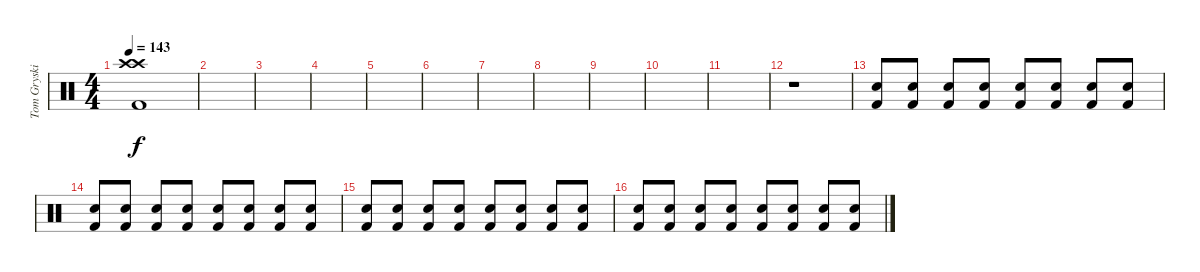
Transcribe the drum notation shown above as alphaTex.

\track ("Tom Gryskiewicz - Drums" "Tom Gryski") {instrument percussion}
\staff {score}
\articulation defaults
\ts (4 4)
\tempo 143
\clef neutral
\ks c
("Crash high (hit)" "Crash high (hit)" "Kick (hit) 2").1{dy f} |
|
|
|
|
|
|
|
|
|
|
r.1{volume 4} |
("Electric Snare (hit)" "Kick (hit) 2").8{volume 7} ("Electric Snare (hit)" "Kick (hit) 2").8 ("Electric Snare (hit)" "Kick (hit) 2").8 ("Electric Snare (hit)" "Kick (hit) 2").8 ("Electric Snare (hit)" "Kick (hit) 2").8 ("Electric Snare (hit)" "Kick (hit) 2").8 ("Electric Snare (hit)" "Kick (hit) 2").8 ("Electric Snare (hit)" "Kick (hit) 2").8 |
("Electric Snare (hit)" "Kick (hit) 2").8 ("Electric Snare (hit)" "Kick (hit) 2").8 ("Electric Snare (hit)" "Kick (hit) 2").8 ("Electric Snare (hit)" "Kick (hit) 2").8 ("Electric Snare (hit)" "Kick (hit) 2").8 ("Electric Snare (hit)" "Kick (hit) 2").8 ("Electric Snare (hit)" "Kick (hit) 2").8 ("Electric Snare (hit)" "Kick (hit) 2").8 |
("Electric Snare (hit)" "Kick (hit) 2").8{volume 9} ("Electric Snare (hit)" "Kick (hit) 2").8 ("Electric Snare (hit)" "Kick (hit) 2").8 ("Electric Snare (hit)" "Kick (hit) 2").8 ("Electric Snare (hit)" "Kick (hit) 2").8 ("Electric Snare (hit)" "Kick (hit) 2").8 ("Electric Snare (hit)" "Kick (hit) 2").8 ("Electric Snare (hit)" "Kick (hit) 2").8 |
("Electric Snare (hit)" "Kick (hit) 2").8 ("Electric Snare (hit)" "Kick (hit) 2").8 ("Electric Snare (hit)" "Kick (hit) 2").8 ("Electric Snare (hit)" "Kick (hit) 2").8 ("Electric Snare (hit)" "Kick (hit) 2").8 ("Electric Snare (hit)" "Kick (hit) 2").8 ("Electric Snare (hit)" "Kick (hit) 2").8 ("Electric Snare (hit)" "Kick (hit) 2").8
